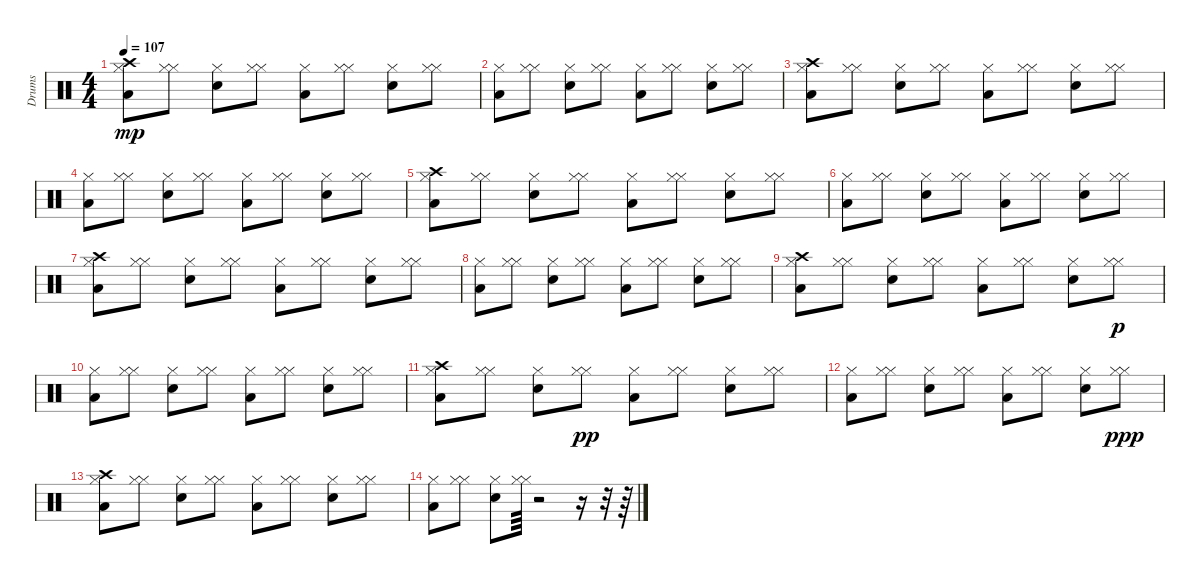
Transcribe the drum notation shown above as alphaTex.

\track ("Drums" "Drums") {instrument percussion}
\staff {score}
\articulation defaults
\ts (4 4)
\tempo 107
\clef neutral
\ks c
("Hi-Hat (closed)" "Crash high (hit)" "Low Tom (hit)").8{dy mp} ("Hi-Hat (closed)" "Hi-Hat (closed)").8 ("Hi-Hat (closed)" "Snare (hit) 2").8 ("Hi-Hat (closed)" "Hi-Hat (closed)").8 ("Hi-Hat (closed)" "Low Tom (hit)").8 ("Hi-Hat (closed)" "Hi-Hat (closed)").8 ("Hi-Hat (closed)" "Snare (hit) 2").8 ("Hi-Hat (closed)" "Hi-Hat (closed)").8 |
("Hi-Hat (closed)" "Low Tom (hit)").8 ("Hi-Hat (closed)" "Hi-Hat (closed)").8 ("Hi-Hat (closed)" "Snare (hit) 2").8 ("Hi-Hat (closed)" "Hi-Hat (closed)").8 ("Hi-Hat (closed)" "Low Tom (hit)").8 ("Hi-Hat (closed)" "Hi-Hat (closed)").8 ("Hi-Hat (closed)" "Snare (hit) 2").8 ("Hi-Hat (closed)" "Hi-Hat (closed)").8 |
("Hi-Hat (closed)" "Crash high (hit)" "Low Tom (hit)").8 ("Hi-Hat (closed)" "Hi-Hat (closed)").8 ("Hi-Hat (closed)" "Snare (hit) 2").8 ("Hi-Hat (closed)" "Hi-Hat (closed)").8 ("Hi-Hat (closed)" "Low Tom (hit)").8 ("Hi-Hat (closed)" "Hi-Hat (closed)").8 ("Hi-Hat (closed)" "Snare (hit) 2").8 ("Hi-Hat (closed)" "Hi-Hat (closed)").8 |
("Hi-Hat (closed)" "Low Tom (hit)").8 ("Hi-Hat (closed)" "Hi-Hat (closed)").8 ("Hi-Hat (closed)" "Snare (hit) 2").8 ("Hi-Hat (closed)" "Hi-Hat (closed)").8 ("Hi-Hat (closed)" "Low Tom (hit)").8 ("Hi-Hat (closed)" "Hi-Hat (closed)").8 ("Hi-Hat (closed)" "Snare (hit) 2").8 ("Hi-Hat (closed)" "Hi-Hat (closed)").8 |
("Hi-Hat (closed)" "Crash high (hit)" "Low Tom (hit)").8 ("Hi-Hat (closed)" "Hi-Hat (closed)").8 ("Hi-Hat (closed)" "Snare (hit) 2").8 ("Hi-Hat (closed)" "Hi-Hat (closed)").8 ("Hi-Hat (closed)" "Low Tom (hit)").8 ("Hi-Hat (closed)" "Hi-Hat (closed)").8 ("Hi-Hat (closed)" "Snare (hit) 2").8 ("Hi-Hat (closed)" "Hi-Hat (closed)").8 |
("Hi-Hat (closed)" "Low Tom (hit)").8 ("Hi-Hat (closed)" "Hi-Hat (closed)").8 ("Hi-Hat (closed)" "Snare (hit) 2").8 ("Hi-Hat (closed)" "Hi-Hat (closed)").8 ("Hi-Hat (closed)" "Low Tom (hit)").8 ("Hi-Hat (closed)" "Hi-Hat (closed)").8 ("Hi-Hat (closed)" "Snare (hit) 2").8 ("Hi-Hat (closed)" "Hi-Hat (closed)").8 |
("Hi-Hat (closed)" "Crash high (hit)" "Low Tom (hit)").8 ("Hi-Hat (closed)" "Hi-Hat (closed)").8 ("Hi-Hat (closed)" "Snare (hit) 2").8 ("Hi-Hat (closed)" "Hi-Hat (closed)").8 ("Hi-Hat (closed)" "Low Tom (hit)").8 ("Hi-Hat (closed)" "Hi-Hat (closed)").8 ("Hi-Hat (closed)" "Snare (hit) 2").8 ("Hi-Hat (closed)" "Hi-Hat (closed)").8 |
("Hi-Hat (closed)" "Low Tom (hit)").8 ("Hi-Hat (closed)" "Hi-Hat (closed)").8 ("Hi-Hat (closed)" "Snare (hit) 2").8 ("Hi-Hat (closed)" "Hi-Hat (closed)").8 ("Hi-Hat (closed)" "Low Tom (hit)").8 ("Hi-Hat (closed)" "Hi-Hat (closed)").8 ("Hi-Hat (closed)" "Snare (hit) 2").8 ("Hi-Hat (closed)" "Hi-Hat (closed)").8 |
("Hi-Hat (closed)" "Crash high (hit)" "Low Tom (hit)").8 ("Hi-Hat (closed)" "Hi-Hat (closed)").8 ("Hi-Hat (closed)" "Snare (hit) 2").8 ("Hi-Hat (closed)" "Hi-Hat (closed)").8 ("Hi-Hat (closed)" "Low Tom (hit)").8 ("Hi-Hat (closed)" "Hi-Hat (closed)").8 ("Hi-Hat (closed)" "Snare (hit) 2").8 ("Hi-Hat (closed)" "Hi-Hat (closed)").8{dy p} |
("Hi-Hat (closed)" "Low Tom (hit)").8 ("Hi-Hat (closed)" "Hi-Hat (closed)").8 ("Hi-Hat (closed)" "Snare (hit) 2").8 ("Hi-Hat (closed)" "Hi-Hat (closed)").8 ("Hi-Hat (closed)" "Low Tom (hit)").8 ("Hi-Hat (closed)" "Hi-Hat (closed)").8 ("Hi-Hat (closed)" "Snare (hit) 2").8 ("Hi-Hat (closed)" "Hi-Hat (closed)").8 |
("Hi-Hat (closed)" "Crash high (hit)" "Low Tom (hit)").8 ("Hi-Hat (closed)" "Hi-Hat (closed)").8 ("Hi-Hat (closed)" "Snare (hit) 2").8 ("Hi-Hat (closed)" "Hi-Hat (closed)").8{dy pp} ("Hi-Hat (closed)" "Low Tom (hit)").8 ("Hi-Hat (closed)" "Hi-Hat (closed)").8 ("Hi-Hat (closed)" "Snare (hit) 2").8 ("Hi-Hat (closed)" "Hi-Hat (closed)").8 |
("Hi-Hat (closed)" "Low Tom (hit)").8 ("Hi-Hat (closed)" "Hi-Hat (closed)").8 ("Hi-Hat (closed)" "Snare (hit) 2").8 ("Hi-Hat (closed)" "Hi-Hat (closed)").8 ("Hi-Hat (closed)" "Low Tom (hit)").8 ("Hi-Hat (closed)" "Hi-Hat (closed)").8 ("Hi-Hat (closed)" "Snare (hit) 2").8 ("Hi-Hat (closed)" "Hi-Hat (closed)").8{dy ppp} |
("Hi-Hat (closed)" "Crash high (hit)" "Low Tom (hit)").8 ("Hi-Hat (closed)" "Hi-Hat (closed)").8 ("Hi-Hat (closed)" "Snare (hit) 2").8 ("Hi-Hat (closed)" "Hi-Hat (closed)").8 ("Hi-Hat (closed)" "Low Tom (hit)").8 ("Hi-Hat (closed)" "Hi-Hat (closed)").8 ("Hi-Hat (closed)" "Snare (hit) 2").8 ("Hi-Hat (closed)" "Hi-Hat (closed)").8 |
("Hi-Hat (closed)" "Low Tom (hit)").8 ("Hi-Hat (closed)" "Hi-Hat (closed)").8 ("Hi-Hat (closed)" "Snare (hit) 2").8 ("Hi-Hat (closed)" "Hi-Hat (closed)").64 r.2 r.16 r.32 r.64
